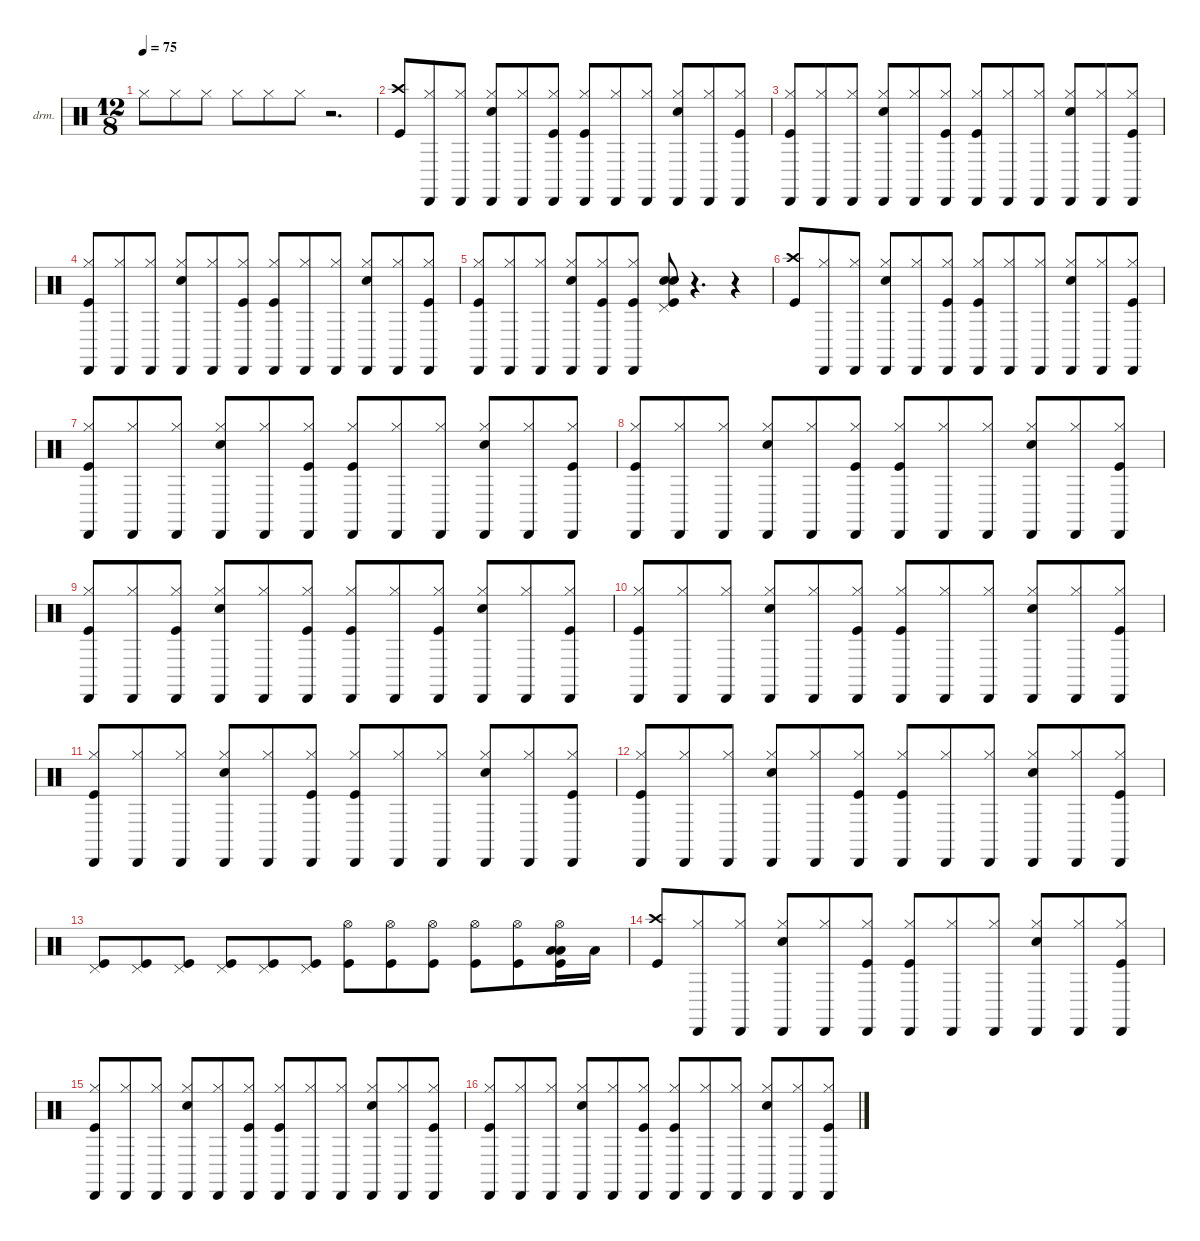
\defaultSystemsLayout 4
\hideDynamics
\bracketExtendMode nobrackets
\firstSystemTrackNameOrientation horizontal
\otherSystemsTrackNameOrientation horizontal
\track ("Drums" "drm.") {instrument percussion}
\staff {score}
\articulation defaults
\ts (12 8)
\beaming (8 3 3 3 3)
\tempo 75
\clef neutral
\ks c "Hi-Hat (closed)".8{dy f beam Down} "Hi-Hat (closed)".8{beam Down} "Hi-Hat (closed)".8{beam Down} "Hi-Hat (closed)".8{beam Down} "Hi-Hat (closed)".8{beam Down} "Hi-Hat (closed)".8{beam Down}
r.2{d beam Down} |
("Crash high (hit)" "Kick (hit)").8{beam Up} ("Hi-Hat (closed)" "Cabasa (hit)").8{dy pp beam Up} ("Hi-Hat (closed)" "Cabasa (hit)").8{dy p beam Up} ("Snare (hit) 2" "Hi-Hat (closed)" "Cabasa (hit)").8{dy ff beam Up} ("Hi-Hat (closed)" "Cabasa (hit)").8{dy pp beam Up} ("Kick (hit)" "Hi-Hat (closed)" "Cabasa (hit)").8{dy f beam Up} ("Kick (hit)" "Hi-Hat (closed)" "Cabasa (hit)").8{dy fff beam Up} ("Hi-Hat (closed)" "Cabasa (hit)").8{dy pp beam Up} ("Hi-Hat (closed)" "Cabasa (hit)").8{dy p beam Up} ("Snare (hit) 2" "Hi-Hat (closed)" "Cabasa (hit)").8{dy ff beam Up} ("Hi-Hat (closed)" "Cabasa (hit)").8{dy pp beam Up} ("Kick (hit)" "Hi-Hat (closed)" "Cabasa (hit)").8{dy f beam Up} |
("Kick (hit)" "Hi-Hat (closed)" "Cabasa (hit)").8{dy fff beam Up} ("Hi-Hat (closed)" "Cabasa (hit)").8{dy pp beam Up} ("Hi-Hat (closed)" "Cabasa (hit)").8{dy p beam Up} ("Snare (hit) 2" "Hi-Hat (closed)" "Cabasa (hit)").8{dy ff beam Up} ("Hi-Hat (closed)" "Cabasa (hit)").8{dy pp beam Up} ("Kick (hit)" "Hi-Hat (closed)" "Cabasa (hit)").8{dy f beam Up} ("Kick (hit)" "Hi-Hat (closed)" "Cabasa (hit)").8{dy fff beam Up} ("Hi-Hat (closed)" "Cabasa (hit)").8{dy pp beam Up} ("Hi-Hat (closed)" "Cabasa (hit)").8{dy p beam Up} ("Snare (hit) 2" "Hi-Hat (closed)" "Cabasa (hit)").8{dy ff beam Up} ("Hi-Hat (closed)" "Cabasa (hit)").8{dy pp beam Up} ("Kick (hit)" "Hi-Hat (closed)" "Cabasa (hit)").8{dy f beam Up} |
("Kick (hit)" "Hi-Hat (closed)" "Cabasa (hit)").8{dy fff beam Up} ("Hi-Hat (closed)" "Cabasa (hit)").8{dy pp beam Up} ("Hi-Hat (closed)" "Cabasa (hit)").8{dy p beam Up} ("Snare (hit) 2" "Hi-Hat (closed)" "Cabasa (hit)").8{dy ff beam Up} ("Hi-Hat (closed)" "Cabasa (hit)").8{dy pp beam Up} ("Kick (hit)" "Hi-Hat (closed)" "Cabasa (hit)").8{dy f beam Up} ("Kick (hit)" "Hi-Hat (closed)" "Cabasa (hit)").8{dy fff beam Up} ("Hi-Hat (closed)" "Cabasa (hit)").8{dy pp beam Up} ("Hi-Hat (closed)" "Cabasa (hit)").8{dy p beam Up} ("Snare (hit) 2" "Hi-Hat (closed)" "Cabasa (hit)").8{dy ff beam Up} ("Hi-Hat (closed)" "Cabasa (hit)").8{dy pp beam Up} ("Kick (hit)" "Hi-Hat (closed)" "Cabasa (hit)").8{dy f beam Up} |
("Kick (hit)" "Hi-Hat (closed)" "Cabasa (hit)").8{dy fff beam Up} ("Hi-Hat (closed)" "Cabasa (hit)").8{dy pp beam Up} ("Hi-Hat (closed)" "Cabasa (hit)").8{dy p beam Up} ("Snare (hit) 2" "Hi-Hat (closed)" "Cabasa (hit)").8{dy ff beam Up} ("Kick (hit)" "Hi-Hat (closed)" "Cabasa (hit)").8{dy mf beam Up} ("Kick (hit)" "Hi-Hat (closed)" "Cabasa (hit)").8{dy f beam Up} ("Pedal Hi-Hat (hit)" "Snare (hit) 2" "Kick (hit)" "Snare (hit) 2").8{dy mf beam Up} r.4{d beam Up} r.4{beam Up} |
("Crash high (hit)" "Kick (hit)").8{dy f beam Up} ("Hi-Hat (closed)" "Cabasa (hit)").8{dy pp beam Up} ("Hi-Hat (closed)" "Cabasa (hit)").8{dy p beam Up} ("Snare (hit) 2" "Hi-Hat (closed)" "Cabasa (hit)").8{dy ff beam Up} ("Hi-Hat (closed)" "Cabasa (hit)").8{dy pp beam Up} ("Kick (hit)" "Hi-Hat (closed)" "Cabasa (hit)").8{dy f beam Up} ("Kick (hit)" "Hi-Hat (closed)" "Cabasa (hit)").8{dy fff beam Up} ("Hi-Hat (closed)" "Cabasa (hit)").8{dy pp beam Up} ("Hi-Hat (closed)" "Cabasa (hit)").8{dy p beam Up} ("Snare (hit) 2" "Hi-Hat (closed)" "Cabasa (hit)").8{dy ff beam Up} ("Hi-Hat (closed)" "Cabasa (hit)").8{dy pp beam Up} ("Kick (hit)" "Hi-Hat (closed)" "Cabasa (hit)").8{dy f beam Up} |
("Kick (hit)" "Hi-Hat (closed)" "Cabasa (hit)").8{dy fff beam Up} ("Hi-Hat (closed)" "Cabasa (hit)").8{dy pp beam Up} ("Hi-Hat (closed)" "Cabasa (hit)").8{dy p beam Up} ("Snare (hit) 2" "Hi-Hat (closed)" "Cabasa (hit)").8{dy ff beam Up} ("Hi-Hat (closed)" "Cabasa (hit)").8{dy pp beam Up} ("Kick (hit)" "Hi-Hat (closed)" "Cabasa (hit)").8{dy f beam Up} ("Kick (hit)" "Hi-Hat (closed)" "Cabasa (hit)").8{dy fff beam Up} ("Hi-Hat (closed)" "Cabasa (hit)").8{dy pp beam Up} ("Hi-Hat (closed)" "Cabasa (hit)").8{dy p beam Up} ("Snare (hit) 2" "Hi-Hat (closed)" "Cabasa (hit)").8{dy ff beam Up} ("Hi-Hat (closed)" "Cabasa (hit)").8{dy pp beam Up} ("Kick (hit)" "Hi-Hat (closed)" "Cabasa (hit)").8{dy f beam Up} |
("Kick (hit)" "Hi-Hat (closed)" "Cabasa (hit)").8{dy fff beam Up} ("Hi-Hat (closed)" "Cabasa (hit)").8{dy pp beam Up} ("Hi-Hat (closed)" "Cabasa (hit)").8{dy p beam Up} ("Snare (hit) 2" "Hi-Hat (closed)" "Cabasa (hit)").8{dy ff beam Up} ("Hi-Hat (closed)" "Cabasa (hit)").8{dy pp beam Up} ("Kick (hit)" "Hi-Hat (closed)" "Cabasa (hit)").8{dy f beam Up} ("Kick (hit)" "Hi-Hat (closed)" "Cabasa (hit)").8{dy fff beam Up} ("Hi-Hat (closed)" "Cabasa (hit)").8{dy pp beam Up} ("Hi-Hat (closed)" "Cabasa (hit)").8{dy p beam Up} ("Snare (hit) 2" "Hi-Hat (closed)" "Cabasa (hit)").8{dy ff beam Up} ("Hi-Hat (closed)" "Cabasa (hit)").8{dy pp beam Up} ("Kick (hit)" "Hi-Hat (closed)" "Cabasa (hit)").8{dy f beam Up} |
("Kick (hit)" "Hi-Hat (closed)" "Cabasa (hit)").8{dy fff beam Up} ("Hi-Hat (closed)" "Cabasa (hit)").8{dy pp beam Up} ("Kick (hit)" "Hi-Hat (closed)" "Cabasa (hit)").8{dy f beam Up} ("Snare (hit) 2" "Hi-Hat (closed)" "Cabasa (hit)").8{dy ff beam Up} ("Hi-Hat (closed)" "Cabasa (hit)").8{dy pp beam Up} ("Kick (hit)" "Hi-Hat (closed)" "Cabasa (hit)").8{dy f beam Up} ("Kick (hit)" "Hi-Hat (closed)" "Cabasa (hit)").8{dy fff beam Up} ("Hi-Hat (closed)" "Cabasa (hit)").8{dy pp beam Up} ("Kick (hit)" "Hi-Hat (closed)" "Cabasa (hit)").8{dy f beam Up} ("Snare (hit) 2" "Hi-Hat (closed)" "Cabasa (hit)").8{dy ff beam Up} ("Hi-Hat (closed)" "Cabasa (hit)").8{dy pp beam Up} ("Kick (hit)" "Hi-Hat (closed)" "Cabasa (hit)").8{dy f beam Up} |
("Kick (hit)" "Hi-Hat (closed)" "Cabasa (hit)").8{dy fff beam Up} ("Hi-Hat (closed)" "Cabasa (hit)").8{dy pp beam Up} ("Hi-Hat (closed)" "Cabasa (hit)").8{dy p beam Up} ("Snare (hit) 2" "Hi-Hat (closed)" "Cabasa (hit)").8{dy ff beam Up} ("Hi-Hat (closed)" "Cabasa (hit)").8{dy pp beam Up} ("Kick (hit)" "Hi-Hat (closed)" "Cabasa (hit)").8{dy f beam Up} ("Kick (hit)" "Hi-Hat (closed)" "Cabasa (hit)").8{dy fff beam Up} ("Hi-Hat (closed)" "Cabasa (hit)").8{dy pp beam Up} ("Hi-Hat (closed)" "Cabasa (hit)").8{dy p beam Up} ("Snare (hit) 2" "Hi-Hat (closed)" "Cabasa (hit)").8{dy ff beam Up} ("Hi-Hat (closed)" "Cabasa (hit)").8{dy pp beam Up} ("Kick (hit)" "Hi-Hat (closed)" "Cabasa (hit)").8{dy f beam Up} |
("Kick (hit)" "Hi-Hat (closed)" "Cabasa (hit)").8{dy fff beam Up} ("Hi-Hat (closed)" "Cabasa (hit)").8{dy pp beam Up} ("Hi-Hat (closed)" "Cabasa (hit)").8{dy p beam Up} ("Snare (hit) 2" "Hi-Hat (closed)" "Cabasa (hit)").8{dy ff beam Up} ("Hi-Hat (closed)" "Cabasa (hit)").8{dy pp beam Up} ("Kick (hit)" "Hi-Hat (closed)" "Cabasa (hit)").8{dy f beam Up} ("Kick (hit)" "Hi-Hat (closed)" "Cabasa (hit)").8{dy fff beam Up} ("Hi-Hat (closed)" "Cabasa (hit)").8{dy pp beam Up} ("Hi-Hat (closed)" "Cabasa (hit)").8{dy p beam Up} ("Snare (hit) 2" "Hi-Hat (closed)" "Cabasa (hit)").8{dy ff beam Up} ("Hi-Hat (closed)" "Cabasa (hit)").8{dy pp beam Up} ("Kick (hit)" "Hi-Hat (closed)" "Cabasa (hit)").8{dy f beam Up} |
("Kick (hit)" "Hi-Hat (closed)" "Cabasa (hit)").8{dy fff beam Up} ("Hi-Hat (closed)" "Cabasa (hit)").8{dy pp beam Up} ("Hi-Hat (closed)" "Cabasa (hit)").8{dy p beam Up} ("Snare (hit) 2" "Hi-Hat (closed)" "Cabasa (hit)").8{dy ff beam Up} ("Hi-Hat (closed)" "Cabasa (hit)").8{dy pp beam Up} ("Kick (hit)" "Hi-Hat (closed)" "Cabasa (hit)").8{dy f beam Up} ("Kick (hit)" "Hi-Hat (closed)" "Cabasa (hit)").8{dy fff beam Up} ("Hi-Hat (closed)" "Cabasa (hit)").8{dy pp beam Up} ("Hi-Hat (closed)" "Cabasa (hit)").8{dy p beam Up} ("Snare (hit) 2" "Hi-Hat (closed)" "Cabasa (hit)").8{dy ff beam Up} ("Hi-Hat (closed)" "Cabasa (hit)").8{dy pp beam Up} ("Kick (hit)" "Hi-Hat (closed)" "Cabasa (hit)").8{dy f beam Up} |
("Pedal Hi-Hat (hit)" "Kick (hit)").8{dy mf beam Up} ("Pedal Hi-Hat (hit)" "Kick (hit)").8{dy p beam Up} ("Pedal Hi-Hat (hit)" "Kick (hit)").8{dy mp beam Up} ("Pedal Hi-Hat (hit)" "Kick (hit)").8{dy mf beam Up} ("Pedal Hi-Hat (hit)" "Kick (hit)").8{dy p beam Up} ("Pedal Hi-Hat (hit)" "Kick (hit)").8{dy mp beam Up} ("Hi-Hat (open)" "Kick (hit)").8{dy mf beam Down} ("Hi-Hat (open)" "Kick (hit)").8{dy p beam Down} ("Hi-Hat (open)" "Kick (hit)").8{dy mp beam Down} ("Hi-Hat (open)" "Kick (hit)").8{dy mf beam Down} ("Hi-Hat (open)" "Kick (hit)").8{dy p beam Down} ("Hi-Hat (open)" "Low Floor Tom (hit)" "Low Tom (hit)" "Kick (hit)").16{dy mp beam Down} "Low Floor Tom (hit)".16{dy f beam Down} |
("Crash high (hit)" "Kick (hit)").8{beam Up} ("Hi-Hat (closed)" "Cabasa (hit)").8{dy pp beam Up} ("Hi-Hat (closed)" "Cabasa (hit)").8{dy p beam Up} ("Snare (hit) 2" "Hi-Hat (closed)" "Cabasa (hit)").8{dy ff beam Up} ("Hi-Hat (closed)" "Cabasa (hit)").8{dy pp beam Up} ("Kick (hit)" "Hi-Hat (closed)" "Cabasa (hit)").8{dy f beam Up} ("Hi-Hat (closed)" "Cabasa (hit)" "Kick (hit)").8{dy mp beam Up} ("Hi-Hat (closed)" "Cabasa (hit)").8{dy pp beam Up} ("Hi-Hat (closed)" "Cabasa (hit)").8{dy p beam Up} ("Snare (hit) 2" "Hi-Hat (closed)" "Cabasa (hit)").8{dy ff beam Up} ("Hi-Hat (closed)" "Cabasa (hit)").8{dy pp beam Up} ("Kick (hit)" "Hi-Hat (closed)" "Cabasa (hit)").8{dy f beam Up} |
("Kick (hit)" "Hi-Hat (closed)" "Cabasa (hit)").8{dy fff beam Up} ("Hi-Hat (closed)" "Cabasa (hit)").8{dy pp beam Up} ("Hi-Hat (closed)" "Cabasa (hit)").8{dy p beam Up} ("Snare (hit) 2" "Hi-Hat (closed)" "Cabasa (hit)").8{dy ff beam Up} ("Hi-Hat (closed)" "Cabasa (hit)").8{dy pp beam Up} ("Kick (hit)" "Hi-Hat (closed)" "Cabasa (hit)").8{dy f beam Up} ("Hi-Hat (closed)" "Cabasa (hit)" "Kick (hit)").8{dy mp beam Up} ("Hi-Hat (closed)" "Cabasa (hit)").8{dy pp beam Up} ("Hi-Hat (closed)" "Cabasa (hit)").8{dy p beam Up} ("Snare (hit) 2" "Hi-Hat (closed)" "Cabasa (hit)").8{dy ff beam Up} ("Hi-Hat (closed)" "Cabasa (hit)").8{dy pp beam Up} ("Kick (hit)" "Hi-Hat (closed)" "Cabasa (hit)").8{dy f beam Up} |
("Kick (hit)" "Hi-Hat (closed)" "Cabasa (hit)").8{dy fff beam Up} ("Hi-Hat (closed)" "Cabasa (hit)").8{dy pp beam Up} ("Hi-Hat (closed)" "Cabasa (hit)").8{dy p beam Up} ("Snare (hit) 2" "Hi-Hat (closed)" "Cabasa (hit)").8{dy ff beam Up} ("Hi-Hat (closed)" "Cabasa (hit)").8{dy pp beam Up} ("Kick (hit)" "Hi-Hat (closed)" "Cabasa (hit)").8{dy f beam Up} ("Kick (hit)" "Hi-Hat (closed)" "Cabasa (hit)").8{dy fff beam Up} ("Hi-Hat (closed)" "Cabasa (hit)").8{dy pp beam Up} ("Hi-Hat (closed)" "Cabasa (hit)").8{dy p beam Up} ("Snare (hit) 2" "Hi-Hat (closed)" "Cabasa (hit)").8{dy ff beam Up} ("Hi-Hat (closed)" "Cabasa (hit)").8{dy pp beam Up} ("Kick (hit)" "Hi-Hat (closed)" "Cabasa (hit)").8{dy f beam Up}
